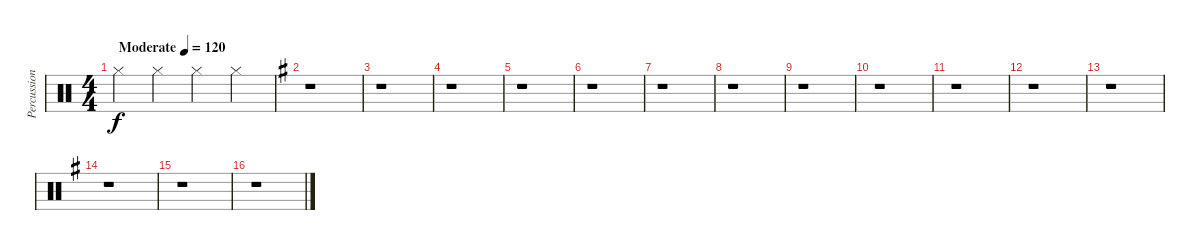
\track ("Percussion" "Percussion") {instrument percussion}
\staff {score}
\articulation defaults
\ts (4 4)
\tempo (120 "Moderate")
\clef neutral
\ks c "Hi-Hat (closed)".4{dy f} "Hi-Hat (closed)".4 "Hi-Hat (closed)".4 "Hi-Hat (closed)".4
|
\ks g
r.1 |
r.1 |
r.1 |
r.1 |
r.1 |
r.1 |
r.1 |
r.1 |
r.1 |
r.1 |
r.1 |
r.1 |
r.1 |
r.1 |
r.1
